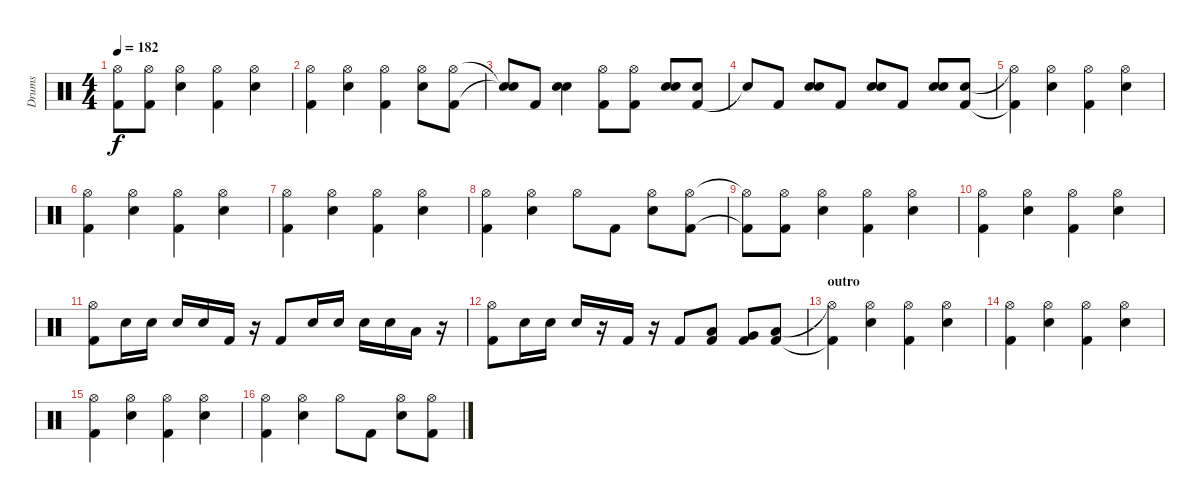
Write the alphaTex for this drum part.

\track ("Drums" "Drums") {instrument percussion}
\staff {score}
\articulation defaults
\ts (4 4)
\tempo 182
\clef neutral
\ks c
("Kick (hit) 2"{t} "Hi-Hat (open)"{t}).8{dy f} ("Kick (hit) 2" "Hi-Hat (open)").8 ("Snare (hit) 2" "Hi-Hat (open)").4 ("Kick (hit) 2" "Hi-Hat (open)").4 ("Snare (hit) 2" "Hi-Hat (open)").4 |
("Kick (hit) 2" "Hi-Hat (open)").4 ("Snare (hit) 2" "Hi-Hat (open)").4 ("Kick (hit) 2" "Hi-Hat (open)").4 ("Snare (hit) 2" "Hi-Hat (open)").8 ("Kick (hit) 2" "Hi-Hat (open)").8 |
("Snare (hit)"{t} "Snare (hit)"{t}).8 "Kick (hit) 2".8 ("Snare (hit) 2" "Electric Snare (hit)").4 ("Kick (hit) 2" "Hi-Hat (open)").8 ("Kick (hit) 2" "Hi-Hat (open)").8 ("Snare (hit) 2" "Electric Snare (hit)").8 ("Kick (hit) 2" "Electric Snare (hit)").8 |
"Snare (hit)"{t}.8 "Kick (hit) 2".8 ("Snare (hit) 2" "Electric Snare (hit)").8 "Kick (hit) 2".8 ("Snare (hit) 2" "Electric Snare (hit)").8 "Kick (hit) 2".8 ("Snare (hit) 2" "Electric Snare (hit)").8 ("Kick (hit) 2" "Electric Snare (hit)").8 |
("Kick (hit) 2"{t} "Hi-Hat (open)"{t}).4 ("Snare (hit) 2" "Hi-Hat (open)").4 ("Kick (hit) 2" "Hi-Hat (open)").4 ("Snare (hit) 2" "Hi-Hat (open)").4 |
("Kick (hit) 2" "Hi-Hat (open)").4 ("Snare (hit) 2" "Hi-Hat (open)").4 ("Kick (hit) 2" "Hi-Hat (open)").4 ("Snare (hit) 2" "Hi-Hat (open)").4 |
("Kick (hit) 2" "Hi-Hat (open)").4 ("Snare (hit) 2" "Hi-Hat (open)").4 ("Kick (hit) 2" "Hi-Hat (open)").4 ("Snare (hit) 2" "Hi-Hat (open)").4 |
("Kick (hit) 2" "Hi-Hat (open)").4 ("Snare (hit) 2" "Hi-Hat (open)").4 "Hi-Hat (open)".8 "Kick (hit) 2".8 ("Snare (hit) 2" "Hi-Hat (open)").8 ("Kick (hit) 2" "Hi-Hat (open)").8 |
("Kick (hit) 2"{t} "Hi-Hat (open)"{t}).8 ("Kick (hit) 2" "Hi-Hat (open)").8 ("Snare (hit) 2" "Hi-Hat (open)").4 ("Kick (hit) 2" "Hi-Hat (open)").4 ("Snare (hit) 2" "Hi-Hat (open)").4 |
("Kick (hit) 2" "Hi-Hat (open)").4 ("Snare (hit) 2" "Hi-Hat (open)").4 ("Kick (hit) 2" "Hi-Hat (open)").4 ("Snare (hit) 2" "Hi-Hat (open)").4 |
("Kick (hit) 2" "Hi-Hat (open)").8 "Snare (hit) 2".16 "Electric Snare (hit)".16 "Snare (hit) 2".16 "Electric Snare (hit)".16 "Kick (hit) 2".16 r.16 "Kick (hit) 2".8 "Snare (hit) 2".16 "Electric Snare (hit)".16 "Snare (hit) 2".16 "Electric Snare (hit)".16 "Low Floor Tom (hit)".16 r.16 |
("Kick (hit) 2" "Hi-Hat (open)").8 "Snare (hit) 2".16 "Electric Snare (hit)".16 "Snare (hit) 2".16 r.16 "Kick (hit) 2".16 r.16 "Kick (hit) 2".8 ("Kick (hit) 2" "Low Floor Tom (hit)").8 ("Kick (hit) 2" "Very Low Tom (hit)").8 ("Kick (hit) 2" "Low Tom (hit)").8 |
\section ("" "outro")
("Kick (hit) 2"{t} "Hi-Hat (open)"{t}).4 ("Snare (hit) 2" "Hi-Hat (open)").4 ("Kick (hit) 2" "Hi-Hat (open)").4 ("Snare (hit) 2" "Hi-Hat (open)").4 |
("Kick (hit) 2" "Hi-Hat (open)").4 ("Snare (hit) 2" "Hi-Hat (open)").4 ("Kick (hit) 2" "Hi-Hat (open)").4 ("Snare (hit) 2" "Hi-Hat (open)").4 |
("Kick (hit) 2" "Hi-Hat (open)").4 ("Snare (hit) 2" "Hi-Hat (open)").4 ("Kick (hit) 2" "Hi-Hat (open)").4 ("Snare (hit) 2" "Hi-Hat (open)").4 |
("Kick (hit) 2" "Hi-Hat (open)").4 ("Snare (hit) 2" "Hi-Hat (open)").4 "Hi-Hat (open)".8 "Kick (hit) 2".8 ("Snare (hit) 2" "Hi-Hat (open)").8 ("Kick (hit) 2" "Hi-Hat (open)").8
